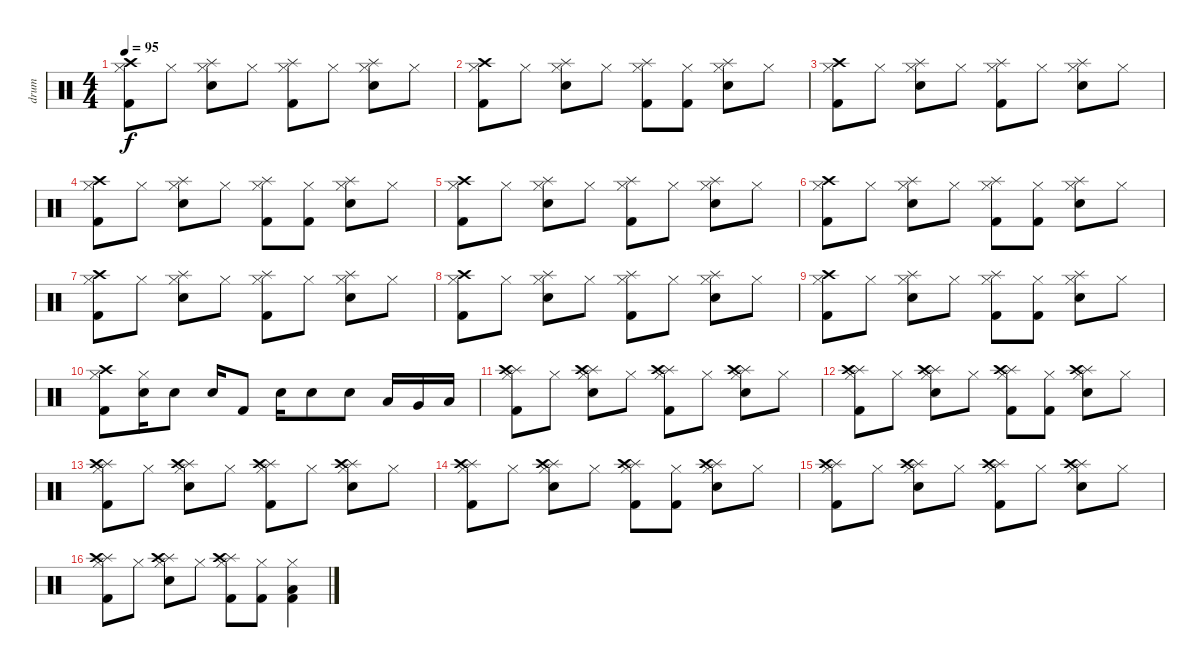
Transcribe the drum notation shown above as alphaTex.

\track ("drum" "drum") {instrument percussion}
\staff {score}
\articulation defaults
\ts (4 4)
\tempo 95
\clef neutral
\ks c
("Crash high (hit)" "Hi-Hat (closed)" "Kick (hit) 2").8{dy f} "Hi-Hat (closed)".8 ("Splash (hit)" "Hi-Hat (closed)" "Electric Snare (hit)").8 "Hi-Hat (closed)".8 ("Splash (hit)" "Hi-Hat (closed)" "Kick (hit) 2").8 "Hi-Hat (closed)".8 ("Splash (hit)" "Hi-Hat (closed)" "Electric Snare (hit)").8 "Hi-Hat (closed)".8 |
("Crash high (hit)" "Hi-Hat (closed)" "Kick (hit) 2").8 "Hi-Hat (closed)".8 ("Splash (hit)" "Hi-Hat (closed)" "Electric Snare (hit)").8 "Hi-Hat (closed)".8 ("Splash (hit)" "Hi-Hat (closed)" "Kick (hit) 2").8 ("Hi-Hat (closed)" "Kick (hit) 2").8 ("Splash (hit)" "Hi-Hat (closed)" "Electric Snare (hit)").8 "Hi-Hat (closed)".8 |
("Crash high (hit)" "Hi-Hat (closed)" "Kick (hit) 2").8 "Hi-Hat (closed)".8 ("Splash (hit)" "Hi-Hat (closed)" "Electric Snare (hit)").8 "Hi-Hat (closed)".8 ("Splash (hit)" "Hi-Hat (closed)" "Kick (hit) 2").8 "Hi-Hat (closed)".8 ("Splash (hit)" "Hi-Hat (closed)" "Electric Snare (hit)").8 "Hi-Hat (closed)".8 |
("Crash high (hit)" "Hi-Hat (closed)" "Kick (hit) 2").8 "Hi-Hat (closed)".8 ("Splash (hit)" "Hi-Hat (closed)" "Electric Snare (hit)").8 "Hi-Hat (closed)".8 ("Splash (hit)" "Hi-Hat (closed)" "Kick (hit) 2").8 ("Hi-Hat (closed)" "Kick (hit) 2").8 ("Splash (hit)" "Hi-Hat (closed)" "Electric Snare (hit)").8 "Hi-Hat (closed)".8 |
("Crash high (hit)" "Hi-Hat (closed)" "Kick (hit) 2").8 "Hi-Hat (closed)".8 ("Splash (hit)" "Hi-Hat (closed)" "Electric Snare (hit)").8 "Hi-Hat (closed)".8 ("Splash (hit)" "Hi-Hat (closed)" "Kick (hit) 2").8 "Hi-Hat (closed)".8 ("Splash (hit)" "Hi-Hat (closed)" "Electric Snare (hit)").8 "Hi-Hat (closed)".8 |
("Crash high (hit)" "Hi-Hat (closed)" "Kick (hit) 2").8 "Hi-Hat (closed)".8 ("Splash (hit)" "Hi-Hat (closed)" "Electric Snare (hit)").8 "Hi-Hat (closed)".8 ("Splash (hit)" "Hi-Hat (closed)" "Kick (hit) 2").8 ("Hi-Hat (closed)" "Kick (hit) 2").8 ("Splash (hit)" "Hi-Hat (closed)" "Electric Snare (hit)").8 "Hi-Hat (closed)".8 |
("Crash high (hit)" "Hi-Hat (closed)" "Kick (hit) 2").8 "Hi-Hat (closed)".8 ("Splash (hit)" "Hi-Hat (closed)" "Electric Snare (hit)").8 "Hi-Hat (closed)".8 ("Splash (hit)" "Hi-Hat (closed)" "Kick (hit) 2").8 "Hi-Hat (closed)".8 ("Splash (hit)" "Hi-Hat (closed)" "Electric Snare (hit)").8 "Hi-Hat (closed)".8 |
("Crash high (hit)" "Hi-Hat (closed)" "Kick (hit) 2").8 "Hi-Hat (closed)".8 ("Splash (hit)" "Hi-Hat (closed)" "Electric Snare (hit)").8 "Hi-Hat (closed)".8 ("Splash (hit)" "Hi-Hat (closed)" "Kick (hit) 2").8 "Hi-Hat (closed)".8 ("Splash (hit)" "Hi-Hat (closed)" "Electric Snare (hit)").8 "Hi-Hat (closed)".8 |
("Crash high (hit)" "Hi-Hat (closed)" "Kick (hit) 2").8 "Hi-Hat (closed)".8 ("Splash (hit)" "Hi-Hat (closed)" "Electric Snare (hit)").8 "Hi-Hat (closed)".8 ("Splash (hit)" "Hi-Hat (closed)" "Kick (hit) 2").8 ("Hi-Hat (closed)" "Kick (hit) 2").8 ("Splash (hit)" "Hi-Hat (closed)" "Electric Snare (hit)").8 "Hi-Hat (closed)".8 |
("Crash high (hit)" "Hi-Hat (closed)" "Kick (hit) 2").8 ("Hi-Hat (closed)" "Electric Snare (hit)").16 "Electric Snare (hit)".8 "Electric Snare (hit)".16 "Kick (hit) 2".8 "Electric Snare (hit)".16 "Electric Snare (hit)".8 "Electric Snare (hit)".8 "Low Tom (hit)".16 "Very Low Tom (hit)".16 "Low Floor Tom (hit)".16 |
("Splash (hit)" "Hi-Hat (closed)" "Crash high (hit)" "Kick (hit) 2").8 "Hi-Hat (closed)".8 ("Splash (hit)" "Hi-Hat (closed)" "Crash high (hit)" "Electric Snare (hit)").8 "Hi-Hat (closed)".8 ("Splash (hit)" "Hi-Hat (closed)" "Crash high (hit)" "Kick (hit) 2").8 "Hi-Hat (closed)".8 ("Splash (hit)" "Hi-Hat (closed)" "Crash high (hit)" "Electric Snare (hit)").8 "Hi-Hat (closed)".8 |
("Splash (hit)" "Hi-Hat (closed)" "Crash high (hit)" "Kick (hit) 2").8 "Hi-Hat (closed)".8 ("Splash (hit)" "Hi-Hat (closed)" "Crash high (hit)" "Electric Snare (hit)").8 "Hi-Hat (closed)".8 ("Splash (hit)" "Hi-Hat (closed)" "Crash high (hit)" "Kick (hit) 2").8 ("Hi-Hat (closed)" "Kick (hit) 2").8 ("Splash (hit)" "Hi-Hat (closed)" "Crash high (hit)" "Electric Snare (hit)").8 "Hi-Hat (closed)".8 |
("Splash (hit)" "Hi-Hat (closed)" "Crash high (hit)" "Kick (hit) 2").8 "Hi-Hat (closed)".8 ("Splash (hit)" "Hi-Hat (closed)" "Crash high (hit)" "Electric Snare (hit)").8 "Hi-Hat (closed)".8 ("Splash (hit)" "Hi-Hat (closed)" "Crash high (hit)" "Kick (hit) 2").8 "Hi-Hat (closed)".8 ("Splash (hit)" "Hi-Hat (closed)" "Crash high (hit)" "Electric Snare (hit)").8 "Hi-Hat (closed)".8 |
("Splash (hit)" "Hi-Hat (closed)" "Crash high (hit)" "Kick (hit) 2").8 "Hi-Hat (closed)".8 ("Splash (hit)" "Hi-Hat (closed)" "Crash high (hit)" "Electric Snare (hit)").8 "Hi-Hat (closed)".8 ("Splash (hit)" "Hi-Hat (closed)" "Crash high (hit)" "Kick (hit) 2").8 ("Hi-Hat (closed)" "Kick (hit) 2").8 ("Splash (hit)" "Hi-Hat (closed)" "Crash high (hit)" "Electric Snare (hit)").8 "Hi-Hat (closed)".8 |
("Splash (hit)" "Hi-Hat (closed)" "Crash high (hit)" "Kick (hit) 2").8 "Hi-Hat (closed)".8 ("Splash (hit)" "Hi-Hat (closed)" "Crash high (hit)" "Electric Snare (hit)").8 "Hi-Hat (closed)".8 ("Splash (hit)" "Hi-Hat (closed)" "Crash high (hit)" "Kick (hit) 2").8 "Hi-Hat (closed)".8 ("Splash (hit)" "Hi-Hat (closed)" "Crash high (hit)" "Electric Snare (hit)").8 "Hi-Hat (closed)".8 |
("Splash (hit)" "Hi-Hat (closed)" "Crash high (hit)" "Kick (hit) 2").8 "Hi-Hat (closed)".8 ("Splash (hit)" "Hi-Hat (closed)" "Crash high (hit)" "Electric Snare (hit)").8 "Hi-Hat (closed)".8 ("Splash (hit)" "Hi-Hat (closed)" "Crash high (hit)" "Kick (hit) 2").8 ("Hi-Hat (closed)" "Kick (hit) 2").8 ("Hi-Hat (closed)" "Low Floor Tom (hit)" "Kick (hit) 2").4
